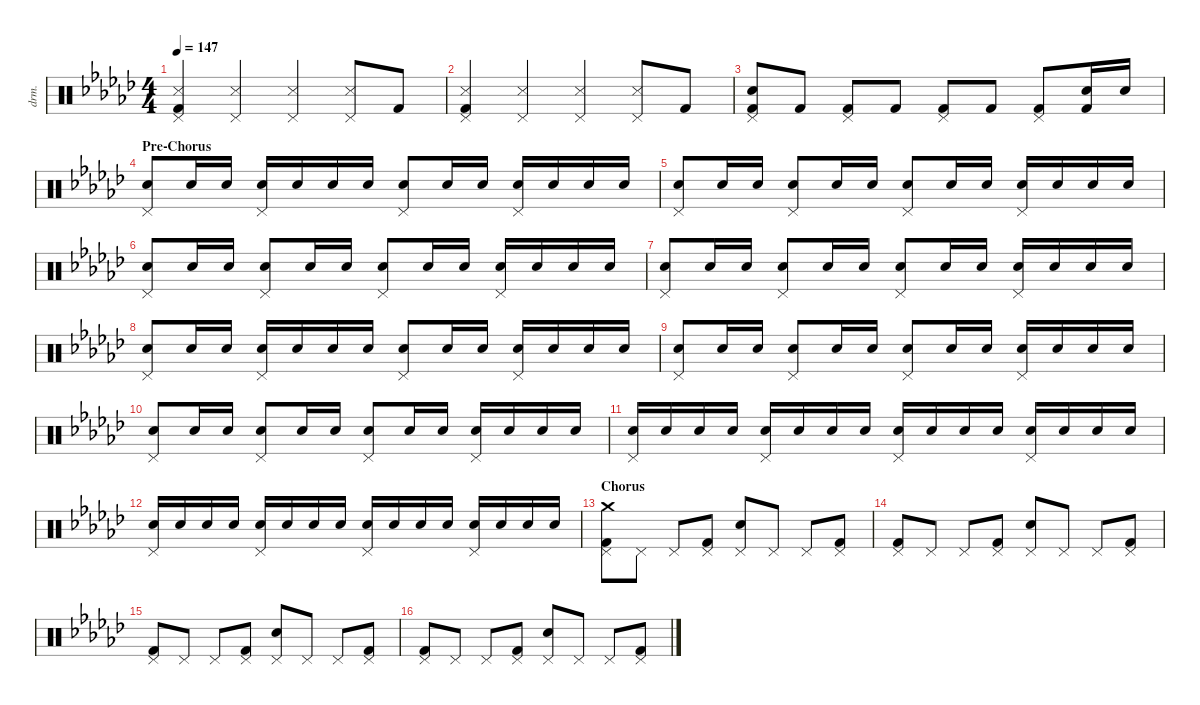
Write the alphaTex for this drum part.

\defaultSystemsLayout 8
\hideDynamics
\bracketExtendMode nobrackets
\otherSystemsTrackNameOrientation horizontal
\track ("Drums" "drm.") {defaultSystemsLayout 4 instrument percussion}
\staff {score}
\articulation defaults
\ts (4 4)
\tempo 147
\clef neutral
\ks ebminor
("Pedal Hi-Hat (hit)"{acc forcenatural} "Kick (hit) 2"{acc forcenatural} "Snare (side stick) 3"{acc forcenatural}).4{dy f beam Up} ("Pedal Hi-Hat (hit)"{acc forcenatural} "Snare (side stick) 3"{acc forcenatural}).4{beam Up} ("Pedal Hi-Hat (hit)"{acc forcenatural} "Snare (side stick) 3"{acc forcenatural}).4{beam Up} ("Pedal Hi-Hat (hit)"{acc forcenatural} "Snare (side stick) 3"{acc forcenatural}).8{beam Up} "Kick (hit) 2"{acc forcenatural}.8{beam Up} |
("Pedal Hi-Hat (hit)"{acc forcenatural} "Kick (hit) 2"{acc forcenatural} "Snare (side stick) 3"{acc forcenatural}).4{beam Up} ("Pedal Hi-Hat (hit)"{acc forcenatural} "Snare (side stick) 3"{acc forcenatural}).4{beam Up} ("Pedal Hi-Hat (hit)"{acc forcenatural} "Snare (side stick) 3"{acc forcenatural}).4{beam Up} ("Pedal Hi-Hat (hit)"{acc forcenatural} "Snare (side stick) 3"{acc forcenatural}).8{beam Up} "Kick (hit) 2"{acc forcenatural}.8{beam Up} |
("Pedal Hi-Hat (hit)"{acc forcenatural} "Kick (hit) 2"{acc forcenatural} "Snare (hit) 2"{acc forcenatural}).8{beam Up} "Kick (hit) 2"{acc forcenatural}.8{dy mf beam Up} ("Pedal Hi-Hat (hit)"{acc forcenatural} "Kick (hit) 2"{acc forcenatural}).8{dy f beam Up} "Kick (hit) 2"{acc forcenatural}.8{beam Up} ("Pedal Hi-Hat (hit)"{acc forcenatural} "Kick (hit) 2"{acc forcenatural}).8{beam Up} "Kick (hit) 2"{acc forcenatural}.8{dy ff beam Up} ("Pedal Hi-Hat (hit)"{acc forcenatural} "Kick (hit) 2"{acc forcenatural}).8{dy f beam Up} ("Kick (hit) 2"{acc forcenatural} "Snare (hit) 2"{acc forcenatural}).16{dy fff beam Up} "Snare (hit) 2"{acc forcenatural}.16{dy mf beam Up} |
\section ("" "Pre-Chorus")
("Pedal Hi-Hat (hit)"{acc forcenatural} "Snare (hit) 2"{acc forcenatural}).8{dy f beam Up} "Snare (hit) 2"{acc forcenatural}.16{dy mf beam Up} "Snare (hit) 2"{acc forcenatural}.16{beam Up} ("Pedal Hi-Hat (hit)"{acc forcenatural} "Snare (hit) 2"{acc forcenatural}).16{dy f beam Up} "Snare (hit) 2"{acc forcenatural}.16{dy mf beam Up} "Snare (hit) 2"{acc forcenatural}.16{beam Up} "Snare (hit) 2"{acc forcenatural}.16{beam Up} ("Pedal Hi-Hat (hit)"{acc forcenatural} "Snare (hit) 2"{acc forcenatural}).8{dy f beam Up} "Snare (hit) 2"{acc forcenatural}.16{dy mf beam Up} "Snare (hit) 2"{acc forcenatural}.16{beam Up} ("Pedal Hi-Hat (hit)"{acc forcenatural} "Snare (hit) 2"{acc forcenatural}).16{dy f beam Up} "Snare (hit) 2"{acc forcenatural}.16{dy mf beam Up} "Snare (hit) 2"{acc forcenatural}.16{beam Up} "Snare (hit) 2"{acc forcenatural}.16{beam Up} |
("Pedal Hi-Hat (hit)"{acc forcenatural} "Snare (hit) 2"{acc forcenatural}).8{dy f beam Up} "Snare (hit) 2"{acc forcenatural}.16{dy mf beam Up} "Snare (hit) 2"{acc forcenatural}.16{beam Up} ("Pedal Hi-Hat (hit)"{acc forcenatural} "Snare (hit) 2"{acc forcenatural}).8{dy f beam Up} "Snare (hit) 2"{acc forcenatural}.16{dy mf beam Up} "Snare (hit) 2"{acc forcenatural}.16{beam Up} ("Pedal Hi-Hat (hit)"{acc forcenatural} "Snare (hit) 2"{acc forcenatural}).8{dy f beam Up} "Snare (hit) 2"{acc forcenatural}.16{dy mf beam Up} "Snare (hit) 2"{acc forcenatural}.16{beam Up} ("Pedal Hi-Hat (hit)"{acc forcenatural} "Snare (hit) 2"{acc forcenatural}).16{dy f beam Up} "Snare (hit) 2"{acc forcenatural}.16{dy mf beam Up} "Snare (hit) 2"{acc forcenatural}.16{beam Up} "Snare (hit) 2"{acc forcenatural}.16{beam Up} |
("Pedal Hi-Hat (hit)"{acc forcenatural} "Snare (hit) 2"{acc forcenatural}).8{dy f beam Up} "Snare (hit) 2"{acc forcenatural}.16{dy mf beam Up} "Snare (hit) 2"{acc forcenatural}.16{beam Up} ("Pedal Hi-Hat (hit)"{acc forcenatural} "Snare (hit) 2"{acc forcenatural}).8{dy f beam Up} "Snare (hit) 2"{acc forcenatural}.16{dy mf beam Up} "Snare (hit) 2"{acc forcenatural}.16{beam Up} ("Pedal Hi-Hat (hit)"{acc forcenatural} "Snare (hit) 2"{acc forcenatural}).8{dy f beam Up} "Snare (hit) 2"{acc forcenatural}.16{dy mf beam Up} "Snare (hit) 2"{acc forcenatural}.16{beam Up} ("Pedal Hi-Hat (hit)"{acc forcenatural} "Snare (hit) 2"{acc forcenatural}).16{dy f beam Up} "Snare (hit) 2"{acc forcenatural}.16{dy mf beam Up} "Snare (hit) 2"{acc forcenatural}.16{beam Up} "Snare (hit) 2"{acc forcenatural}.16{beam Up} |
("Pedal Hi-Hat (hit)"{acc forcenatural} "Snare (hit) 2"{acc forcenatural}).8{dy f beam Up} "Snare (hit) 2"{acc forcenatural}.16{dy mf beam Up} "Snare (hit) 2"{acc forcenatural}.16{beam Up} ("Pedal Hi-Hat (hit)"{acc forcenatural} "Snare (hit) 2"{acc forcenatural}).8{dy f beam Up} "Snare (hit) 2"{acc forcenatural}.16{dy mf beam Up} "Snare (hit) 2"{acc forcenatural}.16{beam Up} ("Pedal Hi-Hat (hit)"{acc forcenatural} "Snare (hit) 2"{acc forcenatural}).8{dy f beam Up} "Snare (hit) 2"{acc forcenatural}.16{dy mf beam Up} "Snare (hit) 2"{acc forcenatural}.16{beam Up} ("Pedal Hi-Hat (hit)"{acc forcenatural} "Snare (hit) 2"{acc forcenatural}).16{dy f beam Up} "Snare (hit) 2"{acc forcenatural}.16{dy mf beam Up} "Snare (hit) 2"{acc forcenatural}.16{beam Up} "Snare (hit) 2"{acc forcenatural}.16{beam Up} |
("Pedal Hi-Hat (hit)"{acc forcenatural} "Snare (hit) 2"{acc forcenatural}).8{dy f beam Up} "Snare (hit) 2"{acc forcenatural}.16{dy mf beam Up} "Snare (hit) 2"{acc forcenatural}.16{beam Up} ("Pedal Hi-Hat (hit)"{acc forcenatural} "Snare (hit) 2"{acc forcenatural}).16{dy f beam Up} "Snare (hit) 2"{acc forcenatural}.16{dy mf beam Up} "Snare (hit) 2"{acc forcenatural}.16{beam Up} "Snare (hit) 2"{acc forcenatural}.16{beam Up} ("Pedal Hi-Hat (hit)"{acc forcenatural} "Snare (hit) 2"{acc forcenatural}).8{dy f beam Up} "Snare (hit) 2"{acc forcenatural}.16{dy mf beam Up} "Snare (hit) 2"{acc forcenatural}.16{beam Up} ("Pedal Hi-Hat (hit)"{acc forcenatural} "Snare (hit) 2"{acc forcenatural}).16{dy f beam Up} "Snare (hit) 2"{acc forcenatural}.16{dy mf beam Up} "Snare (hit) 2"{acc forcenatural}.16{beam Up} "Snare (hit) 2"{acc forcenatural}.16{beam Up} |
("Pedal Hi-Hat (hit)"{acc forcenatural} "Snare (hit) 2"{acc forcenatural}).8{dy f beam Up} "Snare (hit) 2"{acc forcenatural}.16{dy mf beam Up} "Snare (hit) 2"{acc forcenatural}.16{beam Up} ("Pedal Hi-Hat (hit)"{acc forcenatural} "Snare (hit) 2"{acc forcenatural}).8{dy f beam Up} "Snare (hit) 2"{acc forcenatural}.16{dy mf beam Up} "Snare (hit) 2"{acc forcenatural}.16{beam Up} ("Pedal Hi-Hat (hit)"{acc forcenatural} "Snare (hit) 2"{acc forcenatural}).8{dy f beam Up} "Snare (hit) 2"{acc forcenatural}.16{dy mf beam Up} "Snare (hit) 2"{acc forcenatural}.16{beam Up} ("Pedal Hi-Hat (hit)"{acc forcenatural} "Snare (hit) 2"{acc forcenatural}).16{dy f beam Up} "Snare (hit) 2"{acc forcenatural}.16{dy mf beam Up} "Snare (hit) 2"{acc forcenatural}.16{beam Up} "Snare (hit) 2"{acc forcenatural}.16{beam Up} |
("Pedal Hi-Hat (hit)"{acc forcenatural} "Snare (hit) 2"{acc forcenatural}).8{dy f beam Up} "Snare (hit) 2"{acc forcenatural}.16{dy mf beam Up} "Snare (hit) 2"{acc forcenatural}.16{beam Up} ("Pedal Hi-Hat (hit)"{acc forcenatural} "Snare (hit) 2"{acc forcenatural}).8{dy f beam Up} "Snare (hit) 2"{acc forcenatural}.16{dy mf beam Up} "Snare (hit) 2"{acc forcenatural}.16{beam Up} ("Pedal Hi-Hat (hit)"{acc forcenatural} "Snare (hit) 2"{acc forcenatural}).8{dy f beam Up} "Snare (hit) 2"{acc forcenatural}.16{dy mf beam Up} "Snare (hit) 2"{acc forcenatural}.16{beam Up} ("Pedal Hi-Hat (hit)"{acc forcenatural} "Snare (hit) 2"{acc forcenatural}).16{dy f beam Up} "Snare (hit) 2"{acc forcenatural}.16{dy mf beam Up} "Snare (hit) 2"{acc forcenatural}.16{beam Up} "Snare (hit) 2"{acc forcenatural}.16{beam Up} |
("Pedal Hi-Hat (hit)"{acc forcenatural} "Snare (hit) 2"{acc forcenatural}).16{dy f beam Up} "Snare (hit) 2"{acc forcenatural}.16{dy mp beam Up} "Snare (hit) 2"{acc forcenatural}.16{beam Up} "Snare (hit) 2"{acc forcenatural}.16{beam Up} ("Pedal Hi-Hat (hit)"{acc forcenatural} "Snare (hit) 2"{acc forcenatural}).16{dy f beam Up} "Snare (hit) 2"{acc forcenatural}.16{dy mp beam Up} "Snare (hit) 2"{acc forcenatural}.16{beam Up} "Snare (hit) 2"{acc forcenatural}.16{beam Up} ("Pedal Hi-Hat (hit)"{acc forcenatural} "Snare (hit) 2"{acc forcenatural}).16{dy f beam Up} "Snare (hit) 2"{acc forcenatural}.16{dy mp beam Up} "Snare (hit) 2"{acc forcenatural}.16{beam Up} "Snare (hit) 2"{acc forcenatural}.16{beam Up} ("Pedal Hi-Hat (hit)"{acc forcenatural} "Snare (hit) 2"{acc forcenatural}).16{dy f beam Up} "Snare (hit) 2"{acc forcenatural}.16{dy mp beam Up} "Snare (hit) 2"{acc forcenatural}.16{beam Up} "Snare (hit) 2"{acc forcenatural}.16{beam Up} |
("Pedal Hi-Hat (hit)"{acc forcenatural} "Snare (hit) 2"{acc forcenatural}).16{dy f beam Up} "Snare (hit) 2"{acc forcenatural}.16{dy fff beam Up} "Snare (hit) 2"{acc forcenatural}.16{dy mp beam Up} "Snare (hit) 2"{acc forcenatural}.16{beam Up} ("Pedal Hi-Hat (hit)"{acc forcenatural} "Snare (hit) 2"{acc forcenatural}).16{dy f beam Up} "Snare (hit) 2"{acc forcenatural}.16{dy mf beam Up} "Snare (hit) 2"{acc forcenatural}.16{beam Up} "Snare (hit) 2"{acc forcenatural}.16{beam Up} ("Pedal Hi-Hat (hit)"{acc forcenatural} "Snare (hit) 2"{acc forcenatural}).16{dy f beam Up} "Snare (hit) 2"{acc forcenatural}.16{beam Up} "Snare (hit) 2"{acc forcenatural}.16{beam Up} "Snare (hit) 2"{acc forcenatural}.16{beam Up} ("Pedal Hi-Hat (hit)"{acc forcenatural} "Snare (hit) 2"{acc forcenatural}).16{beam Up} "Snare (hit) 2"{acc forcenatural}.16{dy ff beam Up} "Snare (hit) 2"{acc forcenatural}.16{beam Up} "Snare (hit) 2"{acc forcenatural}.16{dy fff beam Up} |
\section ("" "Chorus")
("Pedal Hi-Hat (hit)"{acc forcenatural} "Kick (hit) 2"{acc forcenatural} "Crash medium (hit)"{acc forcenatural}).8{dy f beam Down} "Pedal Hi-Hat (hit)"{acc forcenatural}.8{dy mp beam Down} "Pedal Hi-Hat (hit)"{acc forcenatural}.8{dy f beam Up} ("Pedal Hi-Hat (hit)"{acc forcenatural} "Kick (hit) 2"{acc forcenatural}).8{dy mp beam Up} ("Pedal Hi-Hat (hit)"{acc forcenatural} "Snare (hit) 2"{acc forcenatural}).8{dy f beam Up} "Pedal Hi-Hat (hit)"{acc forcenatural}.8{dy mp beam Up} "Pedal Hi-Hat (hit)"{acc forcenatural}.8{dy f beam Up} ("Pedal Hi-Hat (hit)"{acc forcenatural} "Kick (hit) 2"{acc forcenatural}).8{dy mp beam Up} |
("Pedal Hi-Hat (hit)"{acc forcenatural} "Kick (hit) 2"{acc forcenatural}).8{dy f beam Up} "Pedal Hi-Hat (hit)"{acc forcenatural}.8{dy mp beam Up} "Pedal Hi-Hat (hit)"{acc forcenatural}.8{dy f beam Up} ("Pedal Hi-Hat (hit)"{acc forcenatural} "Kick (hit) 2"{acc forcenatural}).8{dy mp beam Up} ("Pedal Hi-Hat (hit)"{acc forcenatural} "Snare (hit) 2"{acc forcenatural}).8{dy f beam Up} "Pedal Hi-Hat (hit)"{acc forcenatural}.8{dy mp beam Up} "Pedal Hi-Hat (hit)"{acc forcenatural}.8{dy f beam Up} ("Pedal Hi-Hat (hit)"{acc forcenatural} "Kick (hit) 2"{acc forcenatural}).8{dy mp beam Up} |
("Pedal Hi-Hat (hit)"{acc forcenatural} "Kick (hit) 2"{acc forcenatural}).8{dy f beam Up} "Pedal Hi-Hat (hit)"{acc forcenatural}.8{dy mp beam Up} "Pedal Hi-Hat (hit)"{acc forcenatural}.8{dy f beam Up} ("Pedal Hi-Hat (hit)"{acc forcenatural} "Kick (hit) 2"{acc forcenatural}).8{dy mp beam Up} ("Pedal Hi-Hat (hit)"{acc forcenatural} "Snare (hit) 2"{acc forcenatural}).8{dy f beam Up} "Pedal Hi-Hat (hit)"{acc forcenatural}.8{dy mp beam Up} "Pedal Hi-Hat (hit)"{acc forcenatural}.8{dy f beam Up} ("Pedal Hi-Hat (hit)"{acc forcenatural} "Kick (hit) 2"{acc forcenatural}).8{dy mp beam Up} |
("Pedal Hi-Hat (hit)"{acc forcenatural} "Kick (hit) 2"{acc forcenatural}).8{dy f beam Up} "Pedal Hi-Hat (hit)"{acc forcenatural}.8{dy mp beam Up} "Pedal Hi-Hat (hit)"{acc forcenatural}.8{dy f beam Up} ("Pedal Hi-Hat (hit)"{acc forcenatural} "Kick (hit) 2"{acc forcenatural}).8{dy mp beam Up} ("Pedal Hi-Hat (hit)"{acc forcenatural} "Snare (hit) 2"{acc forcenatural}).8{dy f beam Up} "Pedal Hi-Hat (hit)"{acc forcenatural}.8{dy mp beam Up} "Pedal Hi-Hat (hit)"{acc forcenatural}.8{dy f beam Up} ("Pedal Hi-Hat (hit)"{acc forcenatural} "Kick (hit) 2"{acc forcenatural}).8{dy mp beam Up}
